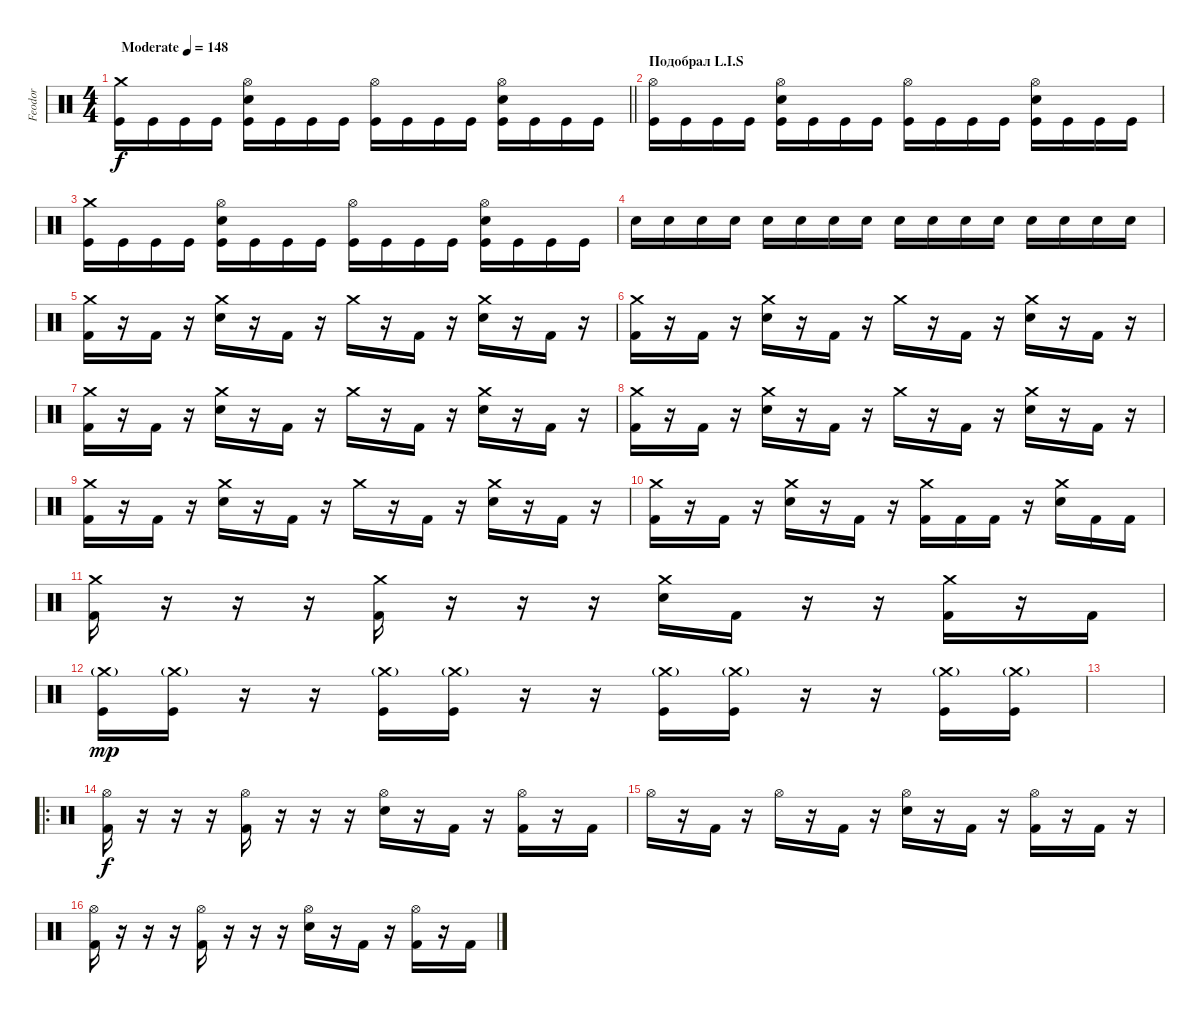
\track ("Feodor" "Feodor") {instrument percussion}
\staff {score}
\articulation defaults
\ts (4 4)
\tempo (148 "Moderate")
\clef neutral
\barLineRight lightlight
\ks c
("Kick (hit)" "Crash medium (hit)").16{dy f} "Kick (hit)".16 "Kick (hit)".16 "Kick (hit)".16 ("Electric Snare (hit)" "Kick (hit)" "Hi-Hat (open)").16 "Kick (hit)".16 "Kick (hit)".16 "Kick (hit)".16 ("Hi-Hat (open)" "Kick (hit)").16 "Kick (hit)".16 "Kick (hit)".16 "Kick (hit)".16 ("Electric Snare (hit)" "Hi-Hat (open)" "Kick (hit)").16 "Kick (hit)".16 "Kick (hit)".16 "Kick (hit)".16 |
\section ("" "Подобрал L.I.S")
("Kick (hit)" "Hi-Hat (open)").16 "Kick (hit)".16 "Kick (hit)".16 "Kick (hit)".16 ("Electric Snare (hit)" "Kick (hit)" "Hi-Hat (open)").16 "Kick (hit)".16 "Kick (hit)".16 "Kick (hit)".16 ("Hi-Hat (open)" "Kick (hit)").16 "Kick (hit)".16 "Kick (hit)".16 "Kick (hit)".16 ("Electric Snare (hit)" "Hi-Hat (open)" "Kick (hit)").16 "Kick (hit)".16 "Kick (hit)".16 "Kick (hit)".16 |
("Kick (hit)" "Crash medium (hit)").16 "Kick (hit)".16 "Kick (hit)".16 "Kick (hit)".16 ("Electric Snare (hit)" "Kick (hit)" "Hi-Hat (open)").16 "Kick (hit)".16 "Kick (hit)".16 "Kick (hit)".16 ("Hi-Hat (open)" "Kick (hit)").16 "Kick (hit)".16 "Kick (hit)".16 "Kick (hit)".16 ("Electric Snare (hit)" "Hi-Hat (open)" "Kick (hit)").16 "Kick (hit)".16 "Kick (hit)".16 "Kick (hit)".16 |
"Electric Snare (hit)".16 "Electric Snare (hit)".16 "Electric Snare (hit)".16 "Electric Snare (hit)".16 "Electric Snare (hit)".16 "Electric Snare (hit)".16 "Electric Snare (hit)".16 "Electric Snare (hit)".16 "Electric Snare (hit)".16 "Electric Snare (hit)".16 "Electric Snare (hit)".16 "Electric Snare (hit)".16 "Electric Snare (hit)".16 "Electric Snare (hit)".16 "Electric Snare (hit)".16 "Electric Snare (hit)".16 |
("Kick (hit) 2" "Crash medium (hit)").16 r.16 "Kick (hit) 2".16 r.16 ("Electric Snare (hit)" "Crash medium (hit)").16 r.16 "Kick (hit) 2".16 r.16 "Crash medium (hit)".16 r.16 "Kick (hit) 2".16 r.16 ("Electric Snare (hit)" "Crash medium (hit)").16 r.16 "Kick (hit) 2".16 r.16 |
("Kick (hit) 2" "Crash medium (hit)").16 r.16 "Kick (hit) 2".16 r.16 ("Electric Snare (hit)" "Crash medium (hit)").16 r.16 "Kick (hit) 2".16 r.16 "Crash medium (hit)".16 r.16 "Kick (hit) 2".16 r.16 ("Electric Snare (hit)" "Crash medium (hit)").16 r.16 "Kick (hit) 2".16 r.16 |
("Kick (hit) 2" "Crash medium (hit)").16 r.16 "Kick (hit) 2".16 r.16 ("Electric Snare (hit)" "Crash medium (hit)").16 r.16 "Kick (hit) 2".16 r.16 "Crash medium (hit)".16 r.16 "Kick (hit) 2".16 r.16 ("Electric Snare (hit)" "Crash medium (hit)").16 r.16 "Kick (hit) 2".16 r.16 |
("Kick (hit) 2" "Crash medium (hit)").16 r.16 "Kick (hit) 2".16 r.16 ("Electric Snare (hit)" "Crash medium (hit)").16 r.16 "Kick (hit) 2".16 r.16 "Crash medium (hit)".16 r.16 "Kick (hit) 2".16 r.16 ("Electric Snare (hit)" "Crash medium (hit)").16 r.16 "Kick (hit) 2".16 r.16 |
("Kick (hit) 2" "Crash medium (hit)").16 r.16 "Kick (hit) 2".16 r.16 ("Electric Snare (hit)" "Crash medium (hit)").16 r.16 "Kick (hit) 2".16 r.16 "Crash medium (hit)".16 r.16 "Kick (hit) 2".16 r.16 ("Electric Snare (hit)" "Crash medium (hit)").16 r.16 "Kick (hit) 2".16 r.16 |
("Kick (hit) 2" "Crash medium (hit)").16 r.16 "Kick (hit) 2".16 r.16 ("Electric Snare (hit)" "Crash medium (hit)").16 r.16 "Kick (hit) 2".16 r.16 ("Kick (hit) 2" "Crash medium (hit)").16 "Kick (hit) 2".16 "Kick (hit) 2".16 r.16 ("Electric Snare (hit)" "Crash medium (hit)").16 "Kick (hit) 2".16 "Kick (hit) 2".16 |
("Kick (hit) 2" "Crash medium (hit)").16 r.16 r.16 r.16 ("Kick (hit) 2" "Crash medium (hit)").16 r.16 r.16 r.16 ("Electric Snare (hit)" "Crash medium (hit)").16 "Kick (hit) 2".16 r.16 r.16 ("Kick (hit) 2" "Crash medium (hit)").16 r.16 "Kick (hit) 2".16 |
("Kick (hit)" "Crash medium (hit)"{g}).16{dy mp} ("Kick (hit)" "Crash medium (hit)"{g}).16 r.16 r.16 ("Kick (hit)" "Crash medium (hit)"{g}).16 ("Kick (hit)" "Crash medium (hit)"{g}).16 r.16 r.16 ("Kick (hit)" "Crash medium (hit)"{g}).16 ("Kick (hit)" "Crash medium (hit)"{g}).16 r.16 r.16 ("Kick (hit)" "Crash medium (hit)"{g}).16 ("Kick (hit)" "Crash medium (hit)"{g}).16 |
|
\ro
("Hi-Hat (open)" "Kick (hit) 2").16{dy f} r.16 r.16 r.16 ("Hi-Hat (open)" "Kick (hit) 2").16 r.16 r.16 r.16 ("Hi-Hat (open)" "Electric Snare (hit)").16 r.16 "Kick (hit) 2".16 r.16 ("Kick (hit) 2" "Hi-Hat (open)").16 r.16 "Kick (hit) 2".16 |
"Hi-Hat (open)".16 r.16 "Kick (hit) 2".16 r.16 "Hi-Hat (open)".16 r.16 "Kick (hit) 2".16 r.16 ("Electric Snare (hit)" "Hi-Hat (open)").16 r.16 "Kick (hit) 2".16 r.16 ("Kick (hit) 2" "Hi-Hat (open)").16 r.16 "Kick (hit) 2".16 r.16 |
("Hi-Hat (open)" "Kick (hit) 2").16 r.16 r.16 r.16 ("Hi-Hat (open)" "Kick (hit) 2").16 r.16 r.16 r.16 ("Hi-Hat (open)" "Electric Snare (hit)").16 r.16 "Kick (hit) 2".16 r.16 ("Kick (hit) 2" "Hi-Hat (open)").16 r.16 "Kick (hit) 2".16
